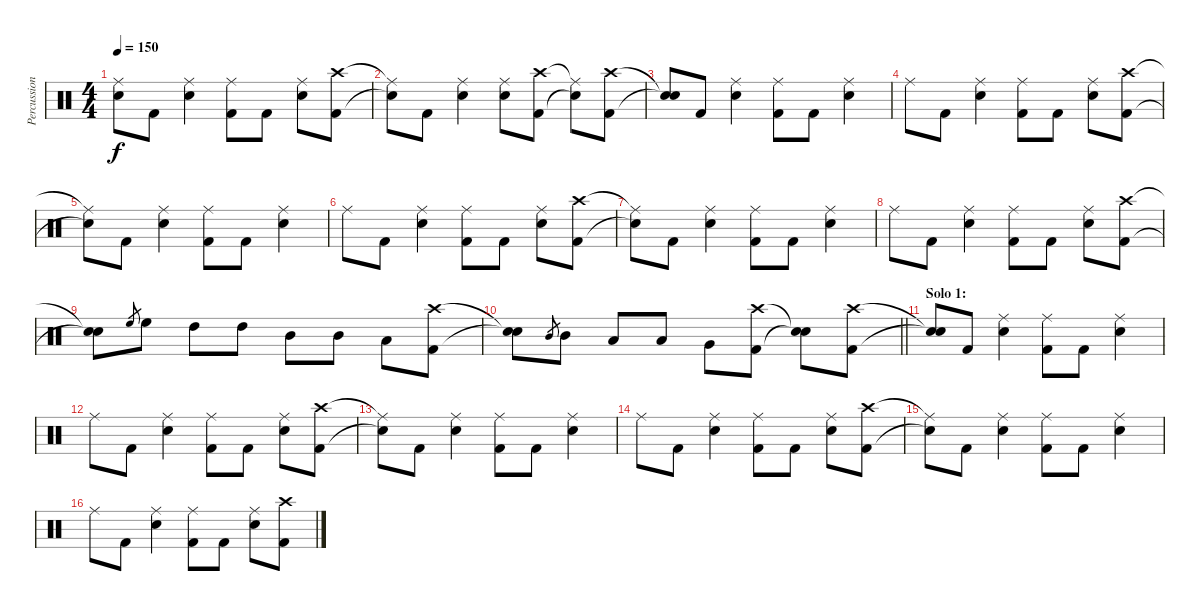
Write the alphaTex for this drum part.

\track ("Percussion" "Percussion") {instrument percussion}
\staff {score}
\articulation defaults
\ts (4 4)
\tempo 150
\clef neutral
\ks c
("Ride (middle)"{t} "Snare (hit)"{t}).8{dy f} "Kick (hit) 2".8 ("Ride (middle)" "Snare (hit) 2").4 ("Ride (middle)" "Kick (hit) 2").8 "Kick (hit) 2".8 ("Ride (middle)" "Snare (hit) 2").8 ("Crash high (hit)" "Kick (hit) 2").8 |
("Ride (middle)"{t} "Snare (hit)"{t}).8 "Kick (hit) 2".8 ("Ride (middle)" "Snare (hit) 2").4 ("Ride (middle)" "Snare (hit) 2").8 ("Crash high (hit)" "Kick (hit) 2").8 ("Ride (middle)"{t} "Snare (hit)"{t}).8 ("Crash high (hit)" "Kick (hit) 2").8 |
("Snare (hit)"{t} "Snare (hit)"{t}).8 "Kick (hit) 2".8 ("Ride (middle)" "Snare (hit) 2").4 ("Ride (middle)" "Kick (hit) 2").8 "Kick (hit) 2".8 ("Ride (middle)" "Snare (hit) 2").4 |
"Ride (middle)".8 "Kick (hit) 2".8 ("Ride (middle)" "Snare (hit) 2").4 ("Ride (middle)" "Kick (hit) 2").8 "Kick (hit) 2".8 ("Ride (middle)" "Snare (hit) 2").8 ("Crash high (hit)" "Kick (hit) 2").8 |
("Ride (middle)"{t} "Snare (hit)"{t}).8 "Kick (hit) 2".8 ("Ride (middle)" "Snare (hit) 2").4 ("Ride (middle)" "Kick (hit) 2").8 "Kick (hit) 2".8 ("Ride (middle)" "Snare (hit) 2").4 |
"Ride (middle)".8 "Kick (hit) 2".8 ("Ride (middle)" "Snare (hit) 2").4 ("Ride (middle)" "Kick (hit) 2").8 "Kick (hit) 2".8 ("Ride (middle)" "Snare (hit) 2").8 ("Crash high (hit)" "Kick (hit) 2").8 |
("Ride (middle)"{t} "Snare (hit)"{t}).8 "Kick (hit) 2".8 ("Ride (middle)" "Snare (hit) 2").4 ("Ride (middle)" "Kick (hit) 2").8 "Kick (hit) 2".8 ("Ride (middle)" "Snare (hit) 2").4 |
"Ride (middle)".8 "Kick (hit) 2".8 ("Ride (middle)" "Snare (hit) 2").4 ("Ride (middle)" "Kick (hit) 2").8 "Kick (hit) 2".8 ("Ride (middle)" "Snare (hit) 2").8 ("Crash high (hit)" "Kick (hit) 2").8 |
("Snare (hit)"{t} "Snare (hit)"{t}).8 "High Floor Tom (hit)".8{gr} "High Floor Tom (hit)".8 "High Tom (hit)".8 "High Tom (hit)".8 "Mid Tom (hit)".8 "Mid Tom (hit)".8 "Low Tom (hit)".8 ("Crash high (hit)" "Kick (hit) 2").8 |
\barLineRight lightlight
("Snare (hit)"{t} "Snare (hit)"{t}).8 "Mid Tom (hit)".8{gr} "Mid Tom (hit)".8 "Low Tom (hit)".8 "Low Tom (hit)".8 "Very Low Tom (hit)".8 ("Crash high (hit)" "Kick (hit) 2").8 ("Snare (hit)"{t} "Snare (hit)"{t}).8 ("Crash high (hit)" "Kick (hit) 2").8 |
\section ("" "Solo 1:")
("Snare (hit)"{t} "Snare (hit)"{t}).8 "Kick (hit) 2".8 ("Ride (middle)" "Snare (hit) 2").4 ("Ride (middle)" "Kick (hit) 2").8 "Kick (hit) 2".8 ("Ride (middle)" "Snare (hit) 2").4 |
"Ride (middle)".8 "Kick (hit) 2".8 ("Ride (middle)" "Snare (hit) 2").4 ("Ride (middle)" "Kick (hit) 2").8 "Kick (hit) 2".8 ("Ride (middle)" "Snare (hit) 2").8 ("Crash high (hit)" "Kick (hit) 2").8 |
("Ride (middle)"{t} "Snare (hit)"{t}).8 "Kick (hit) 2".8 ("Ride (middle)" "Snare (hit) 2").4 ("Ride (middle)" "Kick (hit) 2").8 "Kick (hit) 2".8 ("Ride (middle)" "Snare (hit) 2").4 |
"Ride (middle)".8 "Kick (hit) 2".8 ("Ride (middle)" "Snare (hit) 2").4 ("Ride (middle)" "Kick (hit) 2").8 "Kick (hit) 2".8 ("Ride (middle)" "Snare (hit) 2").8 ("Crash high (hit)" "Kick (hit) 2").8 |
("Ride (middle)"{t} "Snare (hit)"{t}).8 "Kick (hit) 2".8 ("Ride (middle)" "Snare (hit) 2").4 ("Ride (middle)" "Kick (hit) 2").8 "Kick (hit) 2".8 ("Ride (middle)" "Snare (hit) 2").4 |
"Ride (middle)".8 "Kick (hit) 2".8 ("Ride (middle)" "Snare (hit) 2").4 ("Ride (middle)" "Kick (hit) 2").8 "Kick (hit) 2".8 ("Ride (middle)" "Snare (hit) 2").8 ("Crash high (hit)" "Kick (hit) 2").8
